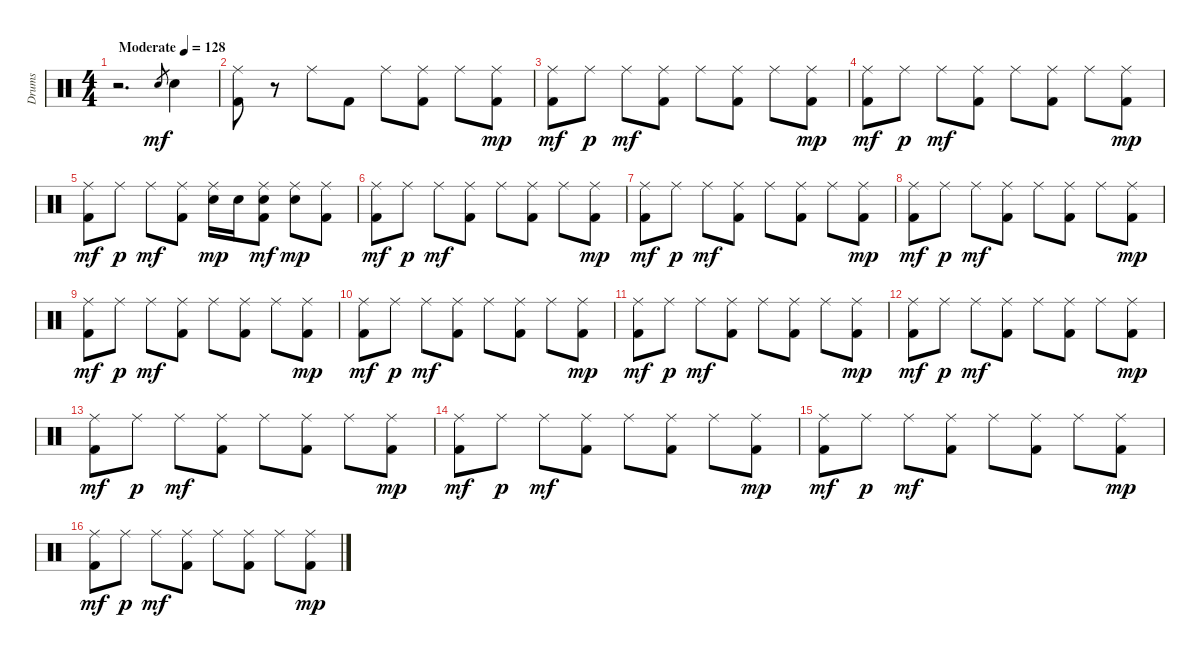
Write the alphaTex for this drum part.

\track ("Drums" "Drums") {instrument percussion}
\staff {score}
\articulation defaults
\ts (4 4)
\tempo (128 "Moderate")
\clef neutral
\ks c
r.2{d dy mf balance 3} "Snare (hit) 2".8{gr} "Snare (hit) 2".4 |
("Ride (middle)" "Kick (hit) 2").8 r.8 "Ride (middle)".8 "Kick (hit) 2".8 "Ride (middle)".8 ("Ride (middle)" "Kick (hit) 2").8 "Ride (middle)".8 ("Ride (middle)" "Kick (hit) 2").8{dy mp} |
("Ride (middle)" "Kick (hit) 2").8{dy mf} "Ride (middle)".8{dy p} "Ride (middle)".8{dy mf} ("Ride (middle)" "Kick (hit) 2").8 "Ride (middle)".8 ("Ride (middle)" "Kick (hit) 2").8 "Ride (middle)".8 ("Ride (middle)" "Kick (hit) 2").8{dy mp} |
("Ride (middle)" "Kick (hit) 2").8{dy mf} "Ride (middle)".8{dy p} "Ride (middle)".8{dy mf} ("Ride (middle)" "Kick (hit) 2").8 "Ride (middle)".8 ("Ride (middle)" "Kick (hit) 2").8 "Ride (middle)".8 ("Ride (middle)" "Kick (hit) 2").8{dy mp} |
("Ride (middle)" "Kick (hit) 2").8{dy mf} "Ride (middle)".8{dy p} "Ride (middle)".8{dy mf} ("Ride (middle)" "Kick (hit) 2").8 ("Ride (middle)" "Snare (hit) 2").16{dy mp} "Snare (hit) 2".16 ("Ride (middle)" "Snare (hit) 2" "Kick (hit) 2").8{dy mf} ("Ride (middle)" "Snare (hit) 2").8{dy mp} ("Ride (middle)" "Kick (hit) 2").8 |
("Ride (middle)" "Kick (hit) 2").8{dy mf} "Ride (middle)".8{dy p} "Ride (middle)".8{dy mf} ("Ride (middle)" "Kick (hit) 2").8 "Ride (middle)".8 ("Ride (middle)" "Kick (hit) 2").8 "Ride (middle)".8 ("Ride (middle)" "Kick (hit) 2").8{dy mp} |
("Ride (middle)" "Kick (hit) 2").8{dy mf} "Ride (middle)".8{dy p} "Ride (middle)".8{dy mf} ("Ride (middle)" "Kick (hit) 2").8 "Ride (middle)".8 ("Ride (middle)" "Kick (hit) 2").8 "Ride (middle)".8 ("Ride (middle)" "Kick (hit) 2").8{dy mp} |
("Ride (middle)" "Kick (hit) 2").8{dy mf} "Ride (middle)".8{dy p} "Ride (middle)".8{dy mf} ("Ride (middle)" "Kick (hit) 2").8 "Ride (middle)".8 ("Ride (middle)" "Kick (hit) 2").8 "Ride (middle)".8 ("Ride (middle)" "Kick (hit) 2").8{dy mp} |
("Ride (middle)" "Kick (hit) 2").8{dy mf} "Ride (middle)".8{dy p} "Ride (middle)".8{dy mf} ("Ride (middle)" "Kick (hit) 2").8 "Ride (middle)".8 ("Ride (middle)" "Kick (hit) 2").8 "Ride (middle)".8 ("Ride (middle)" "Kick (hit) 2").8{dy mp} |
("Ride (middle)" "Kick (hit) 2").8{dy mf} "Ride (middle)".8{dy p} "Ride (middle)".8{dy mf} ("Ride (middle)" "Kick (hit) 2").8 "Ride (middle)".8 ("Ride (middle)" "Kick (hit) 2").8 "Ride (middle)".8 ("Ride (middle)" "Kick (hit) 2").8{dy mp} |
("Ride (middle)" "Kick (hit) 2").8{dy mf} "Ride (middle)".8{dy p} "Ride (middle)".8{dy mf} ("Ride (middle)" "Kick (hit) 2").8 "Ride (middle)".8 ("Ride (middle)" "Kick (hit) 2").8 "Ride (middle)".8 ("Ride (middle)" "Kick (hit) 2").8{dy mp} |
("Ride (middle)" "Kick (hit) 2").8{dy mf} "Ride (middle)".8{dy p} "Ride (middle)".8{dy mf} ("Ride (middle)" "Kick (hit) 2").8 "Ride (middle)".8 ("Ride (middle)" "Kick (hit) 2").8 "Ride (middle)".8 ("Ride (middle)" "Kick (hit) 2").8{dy mp} |
("Ride (middle)" "Kick (hit) 2").8{dy mf} "Ride (middle)".8{dy p} "Ride (middle)".8{dy mf} ("Ride (middle)" "Kick (hit) 2").8 "Ride (middle)".8 ("Ride (middle)" "Kick (hit) 2").8 "Ride (middle)".8 ("Ride (middle)" "Kick (hit) 2").8{dy mp} |
("Ride (middle)" "Kick (hit) 2").8{dy mf} "Ride (middle)".8{dy p} "Ride (middle)".8{dy mf} ("Ride (middle)" "Kick (hit) 2").8 "Ride (middle)".8 ("Ride (middle)" "Kick (hit) 2").8 "Ride (middle)".8 ("Ride (middle)" "Kick (hit) 2").8{dy mp} |
("Ride (middle)" "Kick (hit) 2").8{dy mf} "Ride (middle)".8{dy p} "Ride (middle)".8{dy mf} ("Ride (middle)" "Kick (hit) 2").8 "Ride (middle)".8 ("Ride (middle)" "Kick (hit) 2").8 "Ride (middle)".8 ("Ride (middle)" "Kick (hit) 2").8{dy mp} |
("Ride (middle)" "Kick (hit) 2").8{dy mf} "Ride (middle)".8{dy p} "Ride (middle)".8{dy mf} ("Ride (middle)" "Kick (hit) 2").8 "Ride (middle)".8 ("Ride (middle)" "Kick (hit) 2").8 "Ride (middle)".8 ("Ride (middle)" "Kick (hit) 2").8{dy mp}
